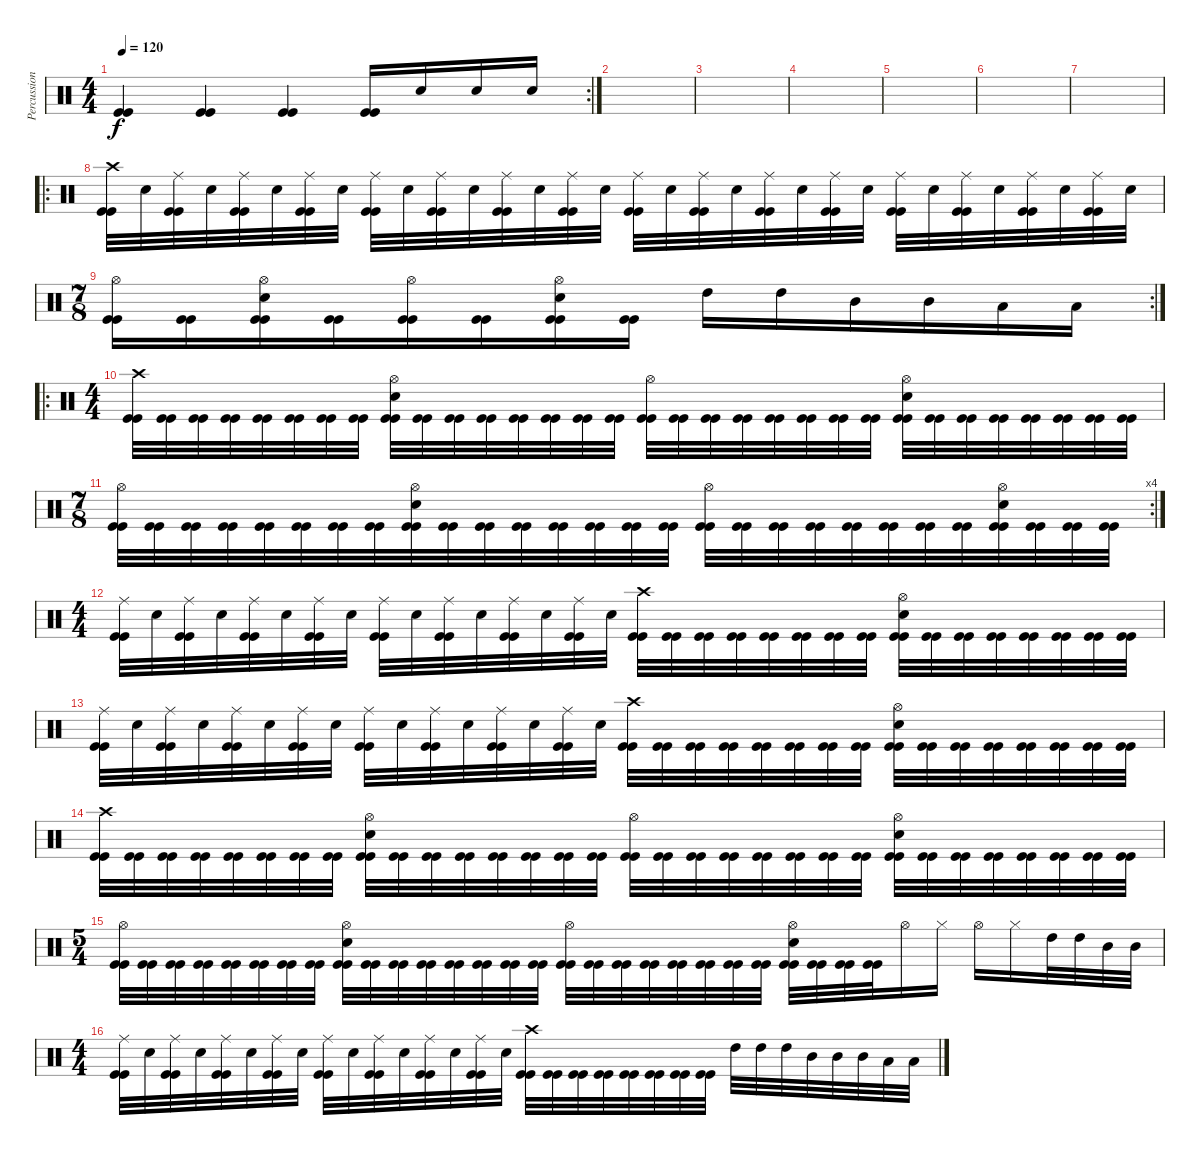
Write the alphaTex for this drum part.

\track ("Percussion" "Percussion") {instrument percussion}
\staff {score}
\articulation defaults
\rc 2
\ts (4 4)
\tempo 120
\clef neutral
\ks c
("Kick (hit)" "Kick (hit)").4{dy f} ("Kick (hit)" "Kick (hit)").4 ("Kick (hit)" "Kick (hit)").4 ("Kick (hit)" "Kick (hit)").16 "Snare (hit) 2".16 "Snare (hit) 2".16 "Snare (hit) 2".16 |
|
|
|
|
|
|
\ro
("Crash high (hit)" "Kick (hit)" "Kick (hit)").32 "Snare (hit) 2".32 ("Ride (middle)" "Kick (hit)" "Kick (hit)").32 "Snare (hit) 2".32 ("Ride (middle)" "Kick (hit)" "Kick (hit)").32 "Snare (hit) 2".32 ("Ride (middle)" "Kick (hit)" "Kick (hit)").32 "Snare (hit) 2".32 ("Ride (middle)" "Kick (hit)" "Kick (hit)").32 "Snare (hit) 2".32 ("Ride (middle)" "Kick (hit)" "Kick (hit)").32 "Snare (hit) 2".32 ("Ride (middle)" "Kick (hit)" "Kick (hit)").32 "Snare (hit) 2".32 ("Ride (middle)" "Kick (hit)" "Kick (hit)").32 "Snare (hit) 2".32 ("Ride (middle)" "Kick (hit)" "Kick (hit)").32 "Snare (hit) 2".32 ("Ride (middle)" "Kick (hit)" "Kick (hit)").32 "Snare (hit) 2".32 ("Ride (middle)" "Kick (hit)" "Kick (hit)").32 "Snare (hit) 2".32 ("Ride (middle)" "Kick (hit)" "Kick (hit)").32 "Snare (hit) 2".32 ("Ride (middle)" "Kick (hit)" "Kick (hit)").32 "Snare (hit) 2".32 ("Ride (middle)" "Kick (hit)" "Kick (hit)").32 "Snare (hit) 2".32 ("Ride (middle)" "Kick (hit)" "Kick (hit)").32 "Snare (hit) 2".32 ("Ride (middle)" "Kick (hit)" "Kick (hit)").32 "Snare (hit) 2".32 |
\rc 2
\ts (7 8)
("Hi-Hat (open)" "Kick (hit)" "Kick (hit)").16 ("Kick (hit)" "Kick (hit)").16 ("Hi-Hat (open)" "Snare (hit) 2" "Kick (hit)" "Kick (hit)").16 ("Kick (hit)" "Kick (hit)").16 ("Hi-Hat (open)" "Kick (hit)" "Kick (hit)").16 ("Kick (hit)" "Kick (hit)").16 ("Hi-Hat (open)" "Snare (hit) 2" "Kick (hit)" "Kick (hit)").16 ("Kick (hit)" "Kick (hit)").16 "High Tom (hit)".16 "High Tom (hit)".16 "Mid Tom (hit)".16 "Mid Tom (hit)".16 "Low Tom (hit)".16 "Low Tom (hit)".16 |
\ro
\ts (4 4)
("Crash high (hit)" "Kick (hit)" "Kick (hit)").32 ("Kick (hit)" "Kick (hit)").32 ("Kick (hit)" "Kick (hit)").32 ("Kick (hit)" "Kick (hit)").32 ("Kick (hit)" "Kick (hit)").32 ("Kick (hit)" "Kick (hit)").32 ("Kick (hit)" "Kick (hit)").32 ("Kick (hit)" "Kick (hit)").32 ("Hi-Hat (open)" "Snare (hit) 2" "Kick (hit)" "Kick (hit)").32 ("Kick (hit)" "Kick (hit)").32 ("Kick (hit)" "Kick (hit)").32 ("Kick (hit)" "Kick (hit)").32 ("Kick (hit)" "Kick (hit)").32 ("Kick (hit)" "Kick (hit)").32 ("Kick (hit)" "Kick (hit)").32 ("Kick (hit)" "Kick (hit)").32 ("Hi-Hat (open)" "Kick (hit)" "Kick (hit)").32 ("Kick (hit)" "Kick (hit)").32 ("Kick (hit)" "Kick (hit)").32 ("Kick (hit)" "Kick (hit)").32 ("Kick (hit)" "Kick (hit)").32 ("Kick (hit)" "Kick (hit)").32 ("Kick (hit)" "Kick (hit)").32 ("Kick (hit)" "Kick (hit)").32 ("Hi-Hat (open)" "Snare (hit) 2" "Kick (hit)" "Kick (hit)").32 ("Kick (hit)" "Kick (hit)").32 ("Kick (hit)" "Kick (hit)").32 ("Kick (hit)" "Kick (hit)").32 ("Kick (hit)" "Kick (hit)").32 ("Kick (hit)" "Kick (hit)").32 ("Kick (hit)" "Kick (hit)").32 ("Kick (hit)" "Kick (hit)").32 |
\rc 4
\ts (7 8)
("Hi-Hat (open)" "Kick (hit)" "Kick (hit)").32 ("Kick (hit)" "Kick (hit)").32 ("Kick (hit)" "Kick (hit)").32 ("Kick (hit)" "Kick (hit)").32 ("Kick (hit)" "Kick (hit)").32 ("Kick (hit)" "Kick (hit)").32 ("Kick (hit)" "Kick (hit)").32 ("Kick (hit)" "Kick (hit)").32 ("Hi-Hat (open)" "Snare (hit) 2" "Kick (hit)" "Kick (hit)").32 ("Kick (hit)" "Kick (hit)").32 ("Kick (hit)" "Kick (hit)").32 ("Kick (hit)" "Kick (hit)").32 ("Kick (hit)" "Kick (hit)").32 ("Kick (hit)" "Kick (hit)").32 ("Kick (hit)" "Kick (hit)").32 ("Kick (hit)" "Kick (hit)").32 ("Hi-Hat (open)" "Kick (hit)" "Kick (hit)").32 ("Kick (hit)" "Kick (hit)").32 ("Kick (hit)" "Kick (hit)").32 ("Kick (hit)" "Kick (hit)").32 ("Kick (hit)" "Kick (hit)").32 ("Kick (hit)" "Kick (hit)").32 ("Kick (hit)" "Kick (hit)").32 ("Kick (hit)" "Kick (hit)").32 ("Hi-Hat (open)" "Snare (hit) 2" "Kick (hit)" "Kick (hit)").32 ("Kick (hit)" "Kick (hit)").32 ("Kick (hit)" "Kick (hit)").32 ("Kick (hit)" "Kick (hit)").32 |
\ts (4 4)
("Ride (middle)" "Kick (hit)" "Kick (hit)").32 "Snare (hit) 2".32 ("Ride (middle)" "Kick (hit)" "Kick (hit)").32 "Snare (hit) 2".32 ("Ride (middle)" "Kick (hit)" "Kick (hit)").32 "Snare (hit) 2".32 ("Ride (middle)" "Kick (hit)" "Kick (hit)").32 "Snare (hit) 2".32 ("Ride (middle)" "Kick (hit)" "Kick (hit)").32 "Snare (hit) 2".32 ("Ride (middle)" "Kick (hit)" "Kick (hit)").32 "Snare (hit) 2".32 ("Ride (middle)" "Kick (hit)" "Kick (hit)").32 "Snare (hit) 2".32 ("Ride (middle)" "Kick (hit)" "Kick (hit)").32 "Snare (hit) 2".32 ("Crash high (hit)" "Kick (hit)" "Kick (hit)").32 ("Kick (hit)" "Kick (hit)").32 ("Kick (hit)" "Kick (hit)").32 ("Kick (hit)" "Kick (hit)").32 ("Kick (hit)" "Kick (hit)").32 ("Kick (hit)" "Kick (hit)").32 ("Kick (hit)" "Kick (hit)").32 ("Kick (hit)" "Kick (hit)").32 ("Hi-Hat (open)" "Snare (hit) 2" "Kick (hit)" "Kick (hit)").32 ("Kick (hit)" "Kick (hit)").32 ("Kick (hit)" "Kick (hit)").32 ("Kick (hit)" "Kick (hit)").32 ("Kick (hit)" "Kick (hit)").32 ("Kick (hit)" "Kick (hit)").32 ("Kick (hit)" "Kick (hit)").32 ("Kick (hit)" "Kick (hit)").32 |
("Ride (middle)" "Kick (hit)" "Kick (hit)").32 "Snare (hit) 2".32 ("Ride (middle)" "Kick (hit)" "Kick (hit)").32 "Snare (hit) 2".32 ("Ride (middle)" "Kick (hit)" "Kick (hit)").32 "Snare (hit) 2".32 ("Ride (middle)" "Kick (hit)" "Kick (hit)").32 "Snare (hit) 2".32 ("Ride (middle)" "Kick (hit)" "Kick (hit)").32 "Snare (hit) 2".32 ("Ride (middle)" "Kick (hit)" "Kick (hit)").32 "Snare (hit) 2".32 ("Ride (middle)" "Kick (hit)" "Kick (hit)").32 "Snare (hit) 2".32 ("Ride (middle)" "Kick (hit)" "Kick (hit)").32 "Snare (hit) 2".32 ("Crash high (hit)" "Kick (hit)" "Kick (hit)").32 ("Kick (hit)" "Kick (hit)").32 ("Kick (hit)" "Kick (hit)").32 ("Kick (hit)" "Kick (hit)").32 ("Kick (hit)" "Kick (hit)").32 ("Kick (hit)" "Kick (hit)").32 ("Kick (hit)" "Kick (hit)").32 ("Kick (hit)" "Kick (hit)").32 ("Hi-Hat (open)" "Snare (hit) 2" "Kick (hit)" "Kick (hit)").32 ("Kick (hit)" "Kick (hit)").32 ("Kick (hit)" "Kick (hit)").32 ("Kick (hit)" "Kick (hit)").32 ("Kick (hit)" "Kick (hit)").32 ("Kick (hit)" "Kick (hit)").32 ("Kick (hit)" "Kick (hit)").32 ("Kick (hit)" "Kick (hit)").32 |
("Crash high (hit)" "Kick (hit)" "Kick (hit)").32 ("Kick (hit)" "Kick (hit)").32 ("Kick (hit)" "Kick (hit)").32 ("Kick (hit)" "Kick (hit)").32 ("Kick (hit)" "Kick (hit)").32 ("Kick (hit)" "Kick (hit)").32 ("Kick (hit)" "Kick (hit)").32 ("Kick (hit)" "Kick (hit)").32 ("Hi-Hat (open)" "Snare (hit) 2" "Kick (hit)" "Kick (hit)").32 ("Kick (hit)" "Kick (hit)").32 ("Kick (hit)" "Kick (hit)").32 ("Kick (hit)" "Kick (hit)").32 ("Kick (hit)" "Kick (hit)").32 ("Kick (hit)" "Kick (hit)").32 ("Kick (hit)" "Kick (hit)").32 ("Kick (hit)" "Kick (hit)").32 ("Hi-Hat (open)" "Kick (hit)" "Kick (hit)").32 ("Kick (hit)" "Kick (hit)").32 ("Kick (hit)" "Kick (hit)").32 ("Kick (hit)" "Kick (hit)").32 ("Kick (hit)" "Kick (hit)").32 ("Kick (hit)" "Kick (hit)").32 ("Kick (hit)" "Kick (hit)").32 ("Kick (hit)" "Kick (hit)").32 ("Hi-Hat (open)" "Snare (hit) 2" "Kick (hit)" "Kick (hit)").32 ("Kick (hit)" "Kick (hit)").32 ("Kick (hit)" "Kick (hit)").32 ("Kick (hit)" "Kick (hit)").32 ("Kick (hit)" "Kick (hit)").32 ("Kick (hit)" "Kick (hit)").32 ("Kick (hit)" "Kick (hit)").32 ("Kick (hit)" "Kick (hit)").32 |
\ts (5 4)
("Hi-Hat (open)" "Kick (hit)" "Kick (hit)").32 ("Kick (hit)" "Kick (hit)").32 ("Kick (hit)" "Kick (hit)").32 ("Kick (hit)" "Kick (hit)").32 ("Kick (hit)" "Kick (hit)").32 ("Kick (hit)" "Kick (hit)").32 ("Kick (hit)" "Kick (hit)").32 ("Kick (hit)" "Kick (hit)").32 ("Hi-Hat (open)" "Snare (hit) 2" "Kick (hit)" "Kick (hit)").32 ("Kick (hit)" "Kick (hit)").32 ("Kick (hit)" "Kick (hit)").32 ("Kick (hit)" "Kick (hit)").32 ("Kick (hit)" "Kick (hit)").32 ("Kick (hit)" "Kick (hit)").32 ("Kick (hit)" "Kick (hit)").32 ("Kick (hit)" "Kick (hit)").32 ("Hi-Hat (open)" "Kick (hit)" "Kick (hit)").32 ("Kick (hit)" "Kick (hit)").32 ("Kick (hit)" "Kick (hit)").32 ("Kick (hit)" "Kick (hit)").32 ("Kick (hit)" "Kick (hit)").32 ("Kick (hit)" "Kick (hit)").32 ("Kick (hit)" "Kick (hit)").32 ("Kick (hit)" "Kick (hit)").32 ("Hi-Hat (open)" "Snare (hit) 2" "Kick (hit)" "Kick (hit)").32 ("Kick (hit)" "Kick (hit)").32 ("Kick (hit)" "Kick (hit)").32 ("Kick (hit)" "Kick (hit)").32 "Hi-Hat (open)".16 "Hi-Hat (closed)".16 "Hi-Hat (open)".16 "Hi-Hat (closed)".16 "High Tom (hit)".32 "High Tom (hit)".32 "Mid Tom (hit)".32 "Mid Tom (hit)".32 |
\ts (4 4)
("Ride (middle)" "Kick (hit)" "Kick (hit)").32 "Snare (hit) 2".32 ("Ride (middle)" "Kick (hit)" "Kick (hit)").32 "Snare (hit) 2".32 ("Ride (middle)" "Kick (hit)" "Kick (hit)").32 "Snare (hit) 2".32 ("Ride (middle)" "Kick (hit)" "Kick (hit)").32 "Snare (hit) 2".32 ("Ride (middle)" "Kick (hit)" "Kick (hit)").32 "Snare (hit) 2".32 ("Ride (middle)" "Kick (hit)" "Kick (hit)").32 "Snare (hit) 2".32 ("Ride (middle)" "Kick (hit)" "Kick (hit)").32 "Snare (hit) 2".32 ("Ride (middle)" "Kick (hit)" "Kick (hit)").32 "Snare (hit) 2".32 ("Crash high (hit)" "Kick (hit)" "Kick (hit)").32 ("Kick (hit)" "Kick (hit)").32 ("Kick (hit)" "Kick (hit)").32 ("Kick (hit)" "Kick (hit)").32 ("Kick (hit)" "Kick (hit)").32 ("Kick (hit)" "Kick (hit)").32 ("Kick (hit)" "Kick (hit)").32 ("Kick (hit)" "Kick (hit)").32 "High Tom (hit)".32 "High Tom (hit)".32 "High Tom (hit)".32 "Mid Tom (hit)".32 "Mid Tom (hit)".32 "Mid Tom (hit)".32 "Low Tom (hit)".32 "Low Tom (hit)".32
